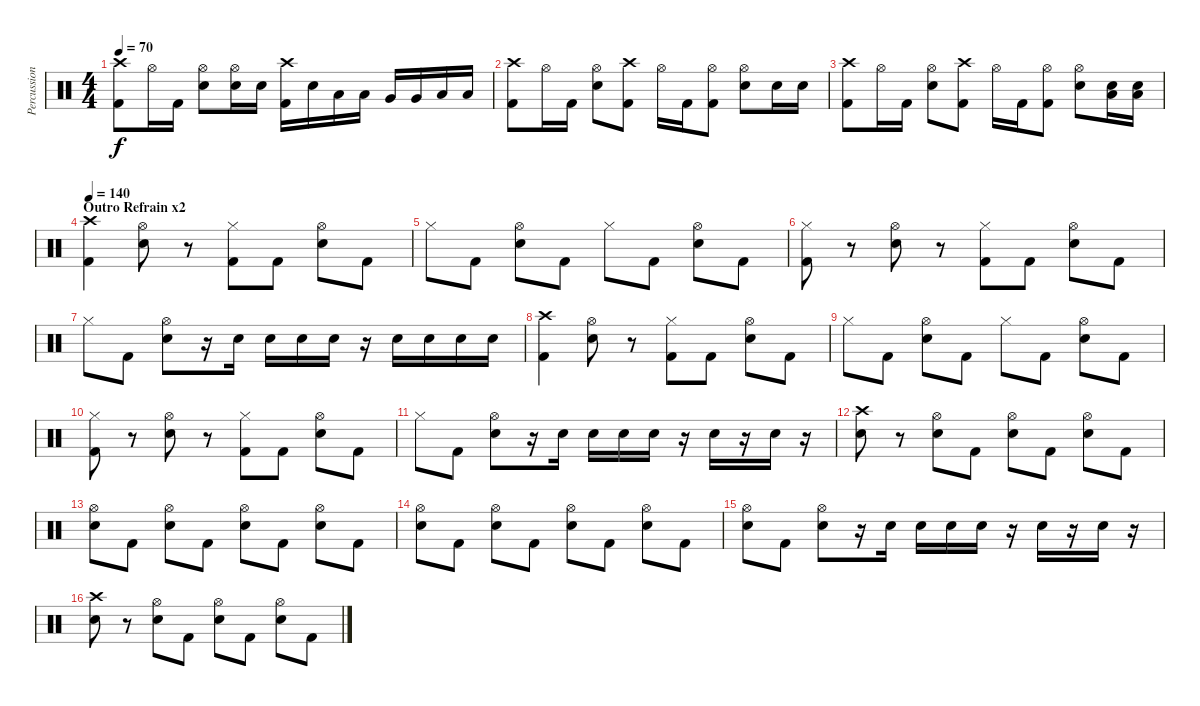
\track ("Percussion" "Percussion") {instrument percussion}
\staff {score}
\articulation defaults
\ts (4 4)
\tempo 70
\clef neutral
\ks c
("Crash high (hit)" "Kick (hit) 2").8{dy f} "Hi-Hat (open)".16 "Kick (hit) 2".16 ("Hi-Hat (open)" "Electric Snare (hit)").8 ("Hi-Hat (open)" "Electric Snare (hit)").16 "Electric Snare (hit)".16 ("Crash high (hit)" "Kick (hit) 2").16 "Electric Snare (hit)".16 "Low Tom (hit)".16 "Low Tom (hit)".16 "Very Low Tom (hit)".16 "Very Low Tom (hit)".16 "Low Floor Tom (hit)".16 "Low Floor Tom (hit)".16 |
("Crash high (hit)" "Kick (hit) 2").8 "Hi-Hat (open)".16 "Kick (hit) 2".16 ("Hi-Hat (open)" "Electric Snare (hit)").8 ("Crash high (hit)" "Kick (hit) 2").8 "Hi-Hat (open)".16 "Kick (hit) 2".16 ("Hi-Hat (open)" "Kick (hit) 2").8 ("Hi-Hat (open)" "Electric Snare (hit)").8 "Electric Snare (hit)".16 "Electric Snare (hit)".16 |
("Crash high (hit)" "Kick (hit) 2").8 "Hi-Hat (open)".16 "Kick (hit) 2".16 ("Hi-Hat (open)" "Electric Snare (hit)").8 ("Crash high (hit)" "Kick (hit) 2").8 "Hi-Hat (open)".16 "Kick (hit) 2".16 ("Hi-Hat (open)" "Kick (hit) 2").8 ("Hi-Hat (open)" "Electric Snare (hit)").8 ("Electric Snare (hit)" "Low Tom (hit)").16 ("Electric Snare (hit)" "Low Tom (hit)").16 |
\section ("" "Outro Refrain x2")
\tempo 140
("Crash high (hit)" "Kick (hit) 2").4 ("Hi-Hat (open)" "Electric Snare (hit)").8 r.8 ("Hi-Hat (closed)" "Kick (hit) 2").8 "Kick (hit) 2".8 ("Hi-Hat (open)" "Electric Snare (hit)").8 "Kick (hit) 2".8 |
"Hi-Hat (closed)".8 "Kick (hit) 2".8 ("Hi-Hat (open)" "Electric Snare (hit)").8 "Kick (hit) 2".8 "Hi-Hat (closed)".8 "Kick (hit) 2".8 ("Hi-Hat (open)" "Electric Snare (hit)").8 "Kick (hit) 2".8 |
("Hi-Hat (closed)" "Kick (hit) 2").8 r.8 ("Hi-Hat (open)" "Electric Snare (hit)").8 r.8 ("Hi-Hat (closed)" "Kick (hit) 2").8 "Kick (hit) 2".8 ("Hi-Hat (open)" "Electric Snare (hit)").8 "Kick (hit) 2".8 |
"Hi-Hat (closed)".8 "Kick (hit) 2".8 ("Hi-Hat (open)" "Electric Snare (hit)").8 r.16 "Electric Snare (hit)".16 "Electric Snare (hit)".16 "Electric Snare (hit)".16 "Electric Snare (hit)".16 r.16 "Electric Snare (hit)".16 "Electric Snare (hit)".16 "Electric Snare (hit)".16 "Electric Snare (hit)".16 |
("Crash high (hit)" "Kick (hit) 2").4 ("Hi-Hat (open)" "Electric Snare (hit)").8 r.8 ("Hi-Hat (closed)" "Kick (hit) 2").8 "Kick (hit) 2".8 ("Hi-Hat (open)" "Electric Snare (hit)").8 "Kick (hit) 2".8 |
"Hi-Hat (closed)".8 "Kick (hit) 2".8 ("Hi-Hat (open)" "Electric Snare (hit)").8 "Kick (hit) 2".8 "Hi-Hat (closed)".8 "Kick (hit) 2".8 ("Hi-Hat (open)" "Electric Snare (hit)").8 "Kick (hit) 2".8 |
("Hi-Hat (closed)" "Kick (hit) 2").8 r.8 ("Hi-Hat (open)" "Electric Snare (hit)").8 r.8 ("Hi-Hat (closed)" "Kick (hit) 2").8 "Kick (hit) 2".8 ("Hi-Hat (open)" "Electric Snare (hit)").8 "Kick (hit) 2".8 |
"Hi-Hat (closed)".8 "Kick (hit) 2".8 ("Hi-Hat (open)" "Electric Snare (hit)").8 r.16 "Electric Snare (hit)".16 "Electric Snare (hit)".16 "Electric Snare (hit)".16 "Electric Snare (hit)".16 r.16 "Electric Snare (hit)".16 r.16 "Electric Snare (hit)".16 r.16 |
("Crash high (hit)" "Electric Snare (hit)").8 r.8 ("Hi-Hat (open)" "Electric Snare (hit)").8 "Kick (hit) 2".8 ("Hi-Hat (open)" "Electric Snare (hit)").8 "Kick (hit) 2".8 ("Hi-Hat (open)" "Electric Snare (hit)").8 "Kick (hit) 2".8 |
("Hi-Hat (open)" "Electric Snare (hit)").8 "Kick (hit) 2".8 ("Hi-Hat (open)" "Electric Snare (hit)").8 "Kick (hit) 2".8 ("Hi-Hat (open)" "Electric Snare (hit)").8 "Kick (hit) 2".8 ("Hi-Hat (open)" "Electric Snare (hit)").8 "Kick (hit) 2".8 |
("Hi-Hat (open)" "Electric Snare (hit)").8 "Kick (hit) 2".8 ("Hi-Hat (open)" "Electric Snare (hit)").8 "Kick (hit) 2".8 ("Hi-Hat (open)" "Electric Snare (hit)").8 "Kick (hit) 2".8 ("Hi-Hat (open)" "Electric Snare (hit)").8 "Kick (hit) 2".8 |
("Hi-Hat (open)" "Electric Snare (hit)").8 "Kick (hit) 2".8 ("Hi-Hat (open)" "Electric Snare (hit)").8 r.16 "Electric Snare (hit)".16 "Electric Snare (hit)".16 "Electric Snare (hit)".16 "Electric Snare (hit)".16 r.16 "Electric Snare (hit)".16 r.16 "Electric Snare (hit)".16 r.16 |
("Crash high (hit)" "Electric Snare (hit)").8 r.8 ("Hi-Hat (open)" "Electric Snare (hit)").8 "Kick (hit) 2".8 ("Hi-Hat (open)" "Electric Snare (hit)").8 "Kick (hit) 2".8 ("Hi-Hat (open)" "Electric Snare (hit)").8 "Kick (hit) 2".8
